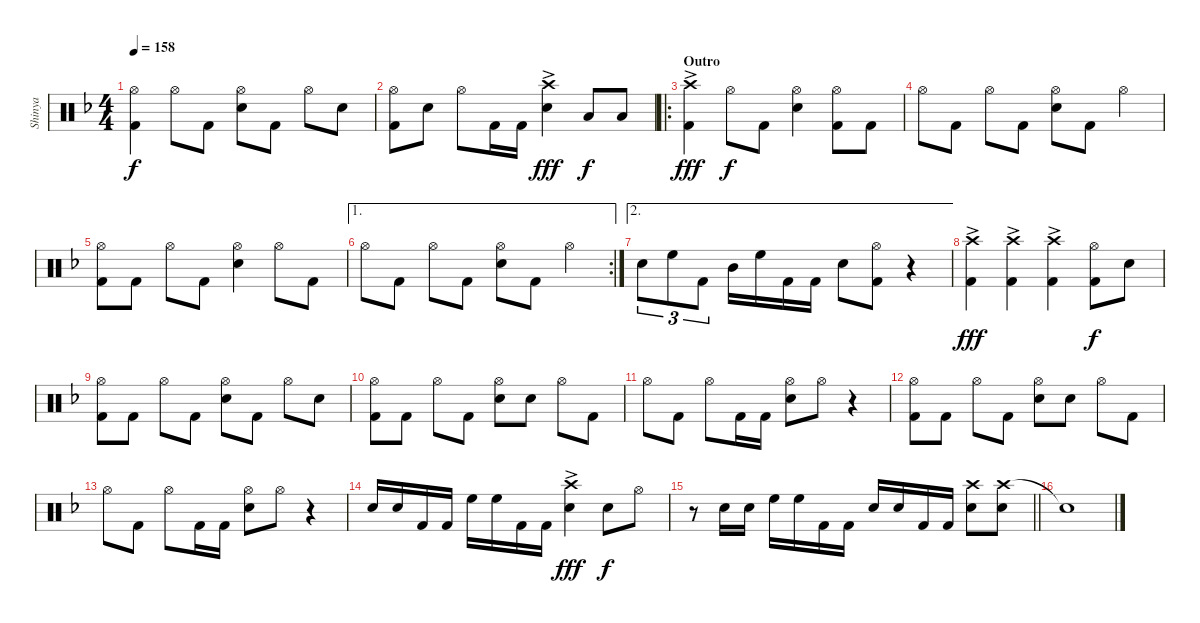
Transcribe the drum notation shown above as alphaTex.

\track ("Shinya" "Shinya") {instrument percussion}
\staff {score}
\articulation defaults
\ts (4 4)
\tempo 158
\clef neutral
\ks f
("Hi-Hat (open)" "Kick (hit) 2").4{dy f} "Hi-Hat (open)".8 "Kick (hit) 2".8 ("Hi-Hat (open)" "Snare (hit) 2").8 "Kick (hit) 2".8 "Hi-Hat (open)".8 "Snare (hit) 2".8 |
("Hi-Hat (open)" "Kick (hit) 2").8 "Snare (hit) 2".8 "Hi-Hat (open)".8 "Kick (hit) 2".16 "Kick (hit) 2".16 ("Crash high (hit)"{ac} "Snare (hit) 2").4{dy fff} "Low Tom (hit)".8{dy f} "Low Tom (hit)".8 |
\ro
\section ("" "Outro")
("Crash high (hit)"{ac} "Kick (hit) 2").4{dy fff} "Hi-Hat (open)".8{dy f} "Kick (hit) 2".8 ("Hi-Hat (open)" "Snare (hit) 2").4 ("Hi-Hat (open)" "Kick (hit) 2").8 "Kick (hit) 2".8 |
"Hi-Hat (open)".8 "Kick (hit) 2".8 "Hi-Hat (open)".8 "Kick (hit) 2".8 ("Hi-Hat (open)" "Snare (hit) 2").8 "Kick (hit) 2".8 "Hi-Hat (open)".4 |
("Hi-Hat (open)" "Kick (hit) 2").8 "Kick (hit) 2".8 "Hi-Hat (open)".8 "Kick (hit) 2".8 ("Hi-Hat (open)" "Snare (hit) 2").4 "Hi-Hat (open)".8 "Kick (hit) 2".8 |
\ae 1
\rc 2 "Hi-Hat (open)".8 "Kick (hit) 2".8 "Hi-Hat (open)".8 "Kick (hit) 2".8
("Hi-Hat (open)" "Snare (hit) 2").8 "Kick (hit) 2".8 "Hi-Hat (open)".4 |
\ae 2 "Snare (hit) 2".8{tu (3 2)} "High Floor Tom (hit)".8{tu (3 2)} "Kick (hit) 2".8{tu (3 2)} "Mid Tom (hit)".16 "High Floor Tom (hit)".16 "Kick (hit) 2".16 "Kick (hit) 2".16 "Snare (hit) 2".8
("Hi-Hat (open)" "Kick (hit) 2").8 r.4 |
("Crash high (hit)"{ac} "Kick (hit) 2").4{dy fff} ("Crash high (hit)"{ac} "Kick (hit) 2").4 ("Crash high (hit)"{ac} "Kick (hit) 2").4 ("Hi-Hat (open)" "Kick (hit) 2").8{dy f} "Snare (hit) 2".8 |
("Hi-Hat (open)" "Kick (hit) 2").8 "Kick (hit) 2".8 "Hi-Hat (open)".8 "Kick (hit) 2".8 ("Hi-Hat (open)" "Snare (hit) 2").8 "Kick (hit) 2".8 "Hi-Hat (open)".8 "Snare (hit) 2".8 |
("Hi-Hat (open)" "Kick (hit) 2").8 "Kick (hit) 2".8 "Hi-Hat (open)".8 "Kick (hit) 2".8 ("Hi-Hat (open)" "Snare (hit) 2").8 "Snare (hit) 2".8 "Hi-Hat (open)".8 "Kick (hit) 2".8 |
"Hi-Hat (open)".8 "Kick (hit) 2".8 "Hi-Hat (open)".8 "Kick (hit) 2".16 "Kick (hit) 2".16 ("Hi-Hat (open)" "Snare (hit) 2").8 "Hi-Hat (open)".8 r.4 |
("Hi-Hat (open)" "Kick (hit) 2").8 "Kick (hit) 2".8 "Hi-Hat (open)".8 "Kick (hit) 2".8 ("Hi-Hat (open)" "Snare (hit) 2").8 "Snare (hit) 2".8 "Hi-Hat (open)".8 "Kick (hit) 2".8 |
"Hi-Hat (open)".8 "Kick (hit) 2".8 "Hi-Hat (open)".8 "Kick (hit) 2".16 "Kick (hit) 2".16 ("Hi-Hat (open)" "Snare (hit) 2").8 "Hi-Hat (open)".8 r.4 |
"Snare (hit) 2".16 "Snare (hit) 2".16 "Kick (hit) 2".16 "Kick (hit) 2".16 "High Floor Tom (hit)".16 "High Floor Tom (hit)".16 "Kick (hit) 2".16 "Kick (hit) 2".16 ("Crash high (hit)"{ac} "Snare (hit) 2").4{dy fff} "Snare (hit) 2".8{dy f} "Hi-Hat (open)".8 |
\barLineRight lightlight
r.8 "Snare (hit) 2".16 "Snare (hit) 2".16 "High Floor Tom (hit)".16 "High Floor Tom (hit)".16 "Kick (hit) 2".16 "Kick (hit) 2".16 "Snare (hit) 2".16 "Snare (hit) 2".16 "Kick (hit) 2".16 "Kick (hit) 2".16 ("Crash high (hit)" "Snare (hit) 2").8 ("Crash high (hit)" "Snare (hit) 2").8 |
"Snare (hit)"{t}.1
